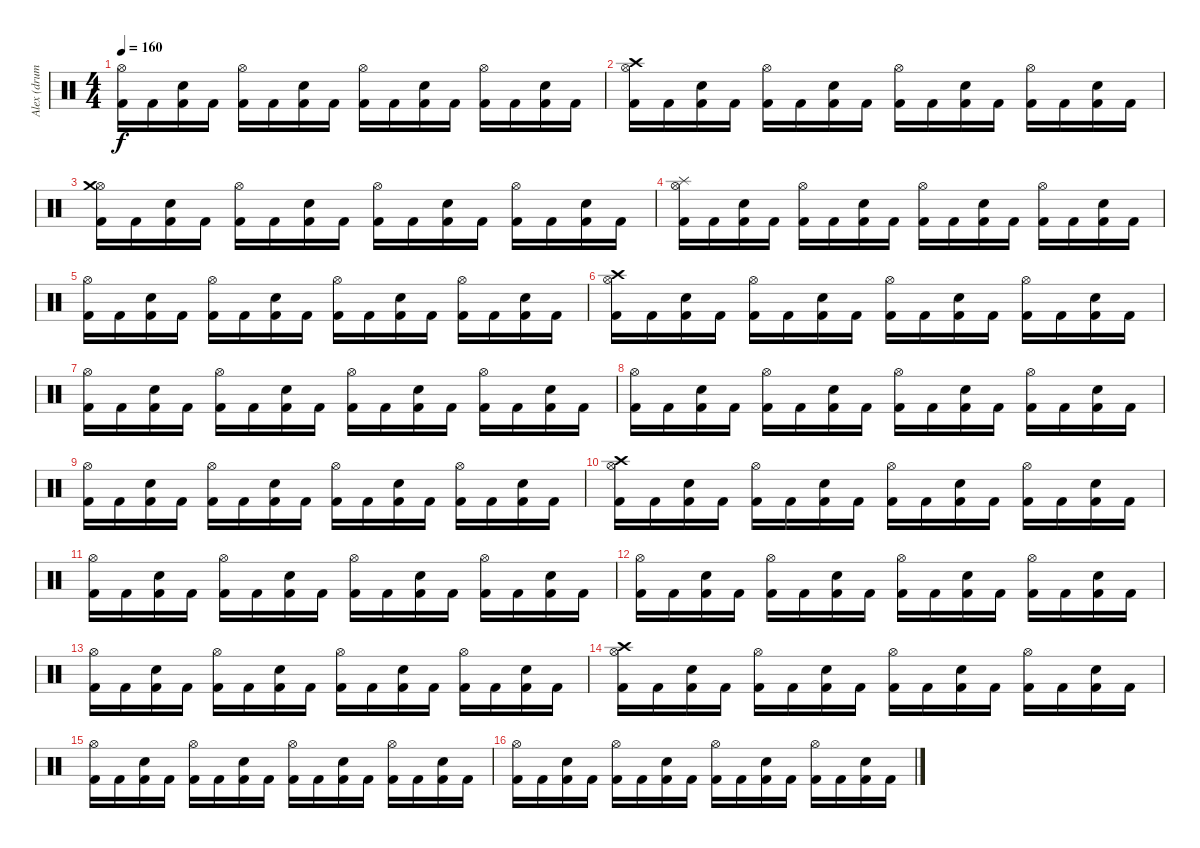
\track ("Alex (drums)" "Alex (drum") {instrument percussion}
\staff {score}
\articulation defaults
\ts (4 4)
\tempo 160
\clef neutral
\ks c
("Hi-Hat (open)" "Kick (hit) 2").16{dy f} "Kick (hit) 2".16 ("Snare (hit) 2" "Kick (hit) 2").16 "Kick (hit) 2".16 ("Hi-Hat (open)" "Kick (hit) 2").16 "Kick (hit) 2".16 ("Snare (hit) 2" "Kick (hit) 2").16 "Kick (hit) 2".16 ("Hi-Hat (open)" "Kick (hit) 2").16 "Kick (hit) 2".16 ("Snare (hit) 2" "Kick (hit) 2").16 "Kick (hit) 2".16 ("Hi-Hat (open)" "Kick (hit) 2").16 "Kick (hit) 2".16 ("Snare (hit) 2" "Kick (hit) 2").16 "Kick (hit) 2".16 |
("Hi-Hat (open)" "Kick (hit) 2" "Crash high (hit)").16 "Kick (hit) 2".16 ("Snare (hit) 2" "Kick (hit) 2").16 "Kick (hit) 2".16 ("Hi-Hat (open)" "Kick (hit) 2").16 "Kick (hit) 2".16 ("Snare (hit) 2" "Kick (hit) 2").16 "Kick (hit) 2".16 ("Hi-Hat (open)" "Kick (hit) 2").16 "Kick (hit) 2".16 ("Snare (hit) 2" "Kick (hit) 2").16 "Kick (hit) 2".16 ("Hi-Hat (open)" "Kick (hit) 2").16 "Kick (hit) 2".16 ("Snare (hit) 2" "Kick (hit) 2").16 "Kick (hit) 2".16 |
("Hi-Hat (open)" "Kick (hit) 2" "Crash medium (hit)").16 "Kick (hit) 2".16 ("Snare (hit) 2" "Kick (hit) 2").16 "Kick (hit) 2".16 ("Hi-Hat (open)" "Kick (hit) 2").16 "Kick (hit) 2".16 ("Snare (hit) 2" "Kick (hit) 2").16 "Kick (hit) 2".16 ("Hi-Hat (open)" "Kick (hit) 2").16 "Kick (hit) 2".16 ("Snare (hit) 2" "Kick (hit) 2").16 "Kick (hit) 2".16 ("Hi-Hat (open)" "Kick (hit) 2").16 "Kick (hit) 2".16 ("Snare (hit) 2" "Kick (hit) 2").16 "Kick (hit) 2".16 |
("Hi-Hat (open)" "Kick (hit) 2" "Splash (hit)").16 "Kick (hit) 2".16 ("Snare (hit) 2" "Kick (hit) 2").16 "Kick (hit) 2".16 ("Hi-Hat (open)" "Kick (hit) 2").16 "Kick (hit) 2".16 ("Snare (hit) 2" "Kick (hit) 2").16 "Kick (hit) 2".16 ("Hi-Hat (open)" "Kick (hit) 2").16 "Kick (hit) 2".16 ("Snare (hit) 2" "Kick (hit) 2").16 "Kick (hit) 2".16 ("Hi-Hat (open)" "Kick (hit) 2").16 "Kick (hit) 2".16 ("Snare (hit) 2" "Kick (hit) 2").16 "Kick (hit) 2".16 |
("Hi-Hat (open)" "Kick (hit) 2").16 "Kick (hit) 2".16 ("Snare (hit) 2" "Kick (hit) 2").16 "Kick (hit) 2".16 ("Hi-Hat (open)" "Kick (hit) 2").16 "Kick (hit) 2".16 ("Snare (hit) 2" "Kick (hit) 2").16 "Kick (hit) 2".16 ("Hi-Hat (open)" "Kick (hit) 2").16 "Kick (hit) 2".16 ("Snare (hit) 2" "Kick (hit) 2").16 "Kick (hit) 2".16 ("Hi-Hat (open)" "Kick (hit) 2").16 "Kick (hit) 2".16 ("Snare (hit) 2" "Kick (hit) 2").16 "Kick (hit) 2".16 |
("Hi-Hat (open)" "Kick (hit) 2" "Crash high (hit)").16 "Kick (hit) 2".16 ("Snare (hit) 2" "Kick (hit) 2").16 "Kick (hit) 2".16 ("Hi-Hat (open)" "Kick (hit) 2").16 "Kick (hit) 2".16 ("Snare (hit) 2" "Kick (hit) 2").16 "Kick (hit) 2".16 ("Hi-Hat (open)" "Kick (hit) 2").16 "Kick (hit) 2".16 ("Snare (hit) 2" "Kick (hit) 2").16 "Kick (hit) 2".16 ("Hi-Hat (open)" "Kick (hit) 2").16 "Kick (hit) 2".16 ("Snare (hit) 2" "Kick (hit) 2").16 "Kick (hit) 2".16 |
("Hi-Hat (open)" "Kick (hit) 2").16 "Kick (hit) 2".16 ("Snare (hit) 2" "Kick (hit) 2").16 "Kick (hit) 2".16 ("Hi-Hat (open)" "Kick (hit) 2").16 "Kick (hit) 2".16 ("Snare (hit) 2" "Kick (hit) 2").16 "Kick (hit) 2".16 ("Hi-Hat (open)" "Kick (hit) 2").16 "Kick (hit) 2".16 ("Snare (hit) 2" "Kick (hit) 2").16 "Kick (hit) 2".16 ("Hi-Hat (open)" "Kick (hit) 2").16 "Kick (hit) 2".16 ("Snare (hit) 2" "Kick (hit) 2").16 "Kick (hit) 2".16 |
("Hi-Hat (open)" "Kick (hit) 2").16 "Kick (hit) 2".16 ("Snare (hit) 2" "Kick (hit) 2").16 "Kick (hit) 2".16 ("Hi-Hat (open)" "Kick (hit) 2").16 "Kick (hit) 2".16 ("Snare (hit) 2" "Kick (hit) 2").16 "Kick (hit) 2".16 ("Hi-Hat (open)" "Kick (hit) 2").16 "Kick (hit) 2".16 ("Snare (hit) 2" "Kick (hit) 2").16 "Kick (hit) 2".16 ("Hi-Hat (open)" "Kick (hit) 2").16 "Kick (hit) 2".16 ("Snare (hit) 2" "Kick (hit) 2").16 "Kick (hit) 2".16 |
("Hi-Hat (open)" "Kick (hit) 2").16 "Kick (hit) 2".16 ("Snare (hit) 2" "Kick (hit) 2").16 "Kick (hit) 2".16 ("Hi-Hat (open)" "Kick (hit) 2").16 "Kick (hit) 2".16 ("Snare (hit) 2" "Kick (hit) 2").16 "Kick (hit) 2".16 ("Hi-Hat (open)" "Kick (hit) 2").16 "Kick (hit) 2".16 ("Snare (hit) 2" "Kick (hit) 2").16 "Kick (hit) 2".16 ("Hi-Hat (open)" "Kick (hit) 2").16 "Kick (hit) 2".16 ("Snare (hit) 2" "Kick (hit) 2").16 "Kick (hit) 2".16 |
("Hi-Hat (open)" "Kick (hit) 2" "Crash high (hit)").16 "Kick (hit) 2".16 ("Snare (hit) 2" "Kick (hit) 2").16 "Kick (hit) 2".16 ("Hi-Hat (open)" "Kick (hit) 2").16 "Kick (hit) 2".16 ("Snare (hit) 2" "Kick (hit) 2").16 "Kick (hit) 2".16 ("Hi-Hat (open)" "Kick (hit) 2").16 "Kick (hit) 2".16 ("Snare (hit) 2" "Kick (hit) 2").16 "Kick (hit) 2".16 ("Hi-Hat (open)" "Kick (hit) 2").16 "Kick (hit) 2".16 ("Snare (hit) 2" "Kick (hit) 2").16 "Kick (hit) 2".16 |
("Hi-Hat (open)" "Kick (hit) 2").16 "Kick (hit) 2".16 ("Snare (hit) 2" "Kick (hit) 2").16 "Kick (hit) 2".16 ("Hi-Hat (open)" "Kick (hit) 2").16 "Kick (hit) 2".16 ("Snare (hit) 2" "Kick (hit) 2").16 "Kick (hit) 2".16 ("Hi-Hat (open)" "Kick (hit) 2").16 "Kick (hit) 2".16 ("Snare (hit) 2" "Kick (hit) 2").16 "Kick (hit) 2".16 ("Hi-Hat (open)" "Kick (hit) 2").16 "Kick (hit) 2".16 ("Snare (hit) 2" "Kick (hit) 2").16 "Kick (hit) 2".16 |
("Hi-Hat (open)" "Kick (hit) 2").16 "Kick (hit) 2".16 ("Snare (hit) 2" "Kick (hit) 2").16 "Kick (hit) 2".16 ("Hi-Hat (open)" "Kick (hit) 2").16 "Kick (hit) 2".16 ("Snare (hit) 2" "Kick (hit) 2").16 "Kick (hit) 2".16 ("Hi-Hat (open)" "Kick (hit) 2").16 "Kick (hit) 2".16 ("Snare (hit) 2" "Kick (hit) 2").16 "Kick (hit) 2".16 ("Hi-Hat (open)" "Kick (hit) 2").16 "Kick (hit) 2".16 ("Snare (hit) 2" "Kick (hit) 2").16 "Kick (hit) 2".16 |
("Hi-Hat (open)" "Kick (hit) 2").16 "Kick (hit) 2".16 ("Snare (hit) 2" "Kick (hit) 2").16 "Kick (hit) 2".16 ("Hi-Hat (open)" "Kick (hit) 2").16 "Kick (hit) 2".16 ("Snare (hit) 2" "Kick (hit) 2").16 "Kick (hit) 2".16 ("Hi-Hat (open)" "Kick (hit) 2").16 "Kick (hit) 2".16 ("Snare (hit) 2" "Kick (hit) 2").16 "Kick (hit) 2".16 ("Hi-Hat (open)" "Kick (hit) 2").16 "Kick (hit) 2".16 ("Snare (hit) 2" "Kick (hit) 2").16 "Kick (hit) 2".16 |
("Hi-Hat (open)" "Kick (hit) 2" "Crash high (hit)").16 "Kick (hit) 2".16 ("Snare (hit) 2" "Kick (hit) 2").16 "Kick (hit) 2".16 ("Hi-Hat (open)" "Kick (hit) 2").16 "Kick (hit) 2".16 ("Snare (hit) 2" "Kick (hit) 2").16 "Kick (hit) 2".16 ("Hi-Hat (open)" "Kick (hit) 2").16 "Kick (hit) 2".16 ("Snare (hit) 2" "Kick (hit) 2").16 "Kick (hit) 2".16 ("Hi-Hat (open)" "Kick (hit) 2").16 "Kick (hit) 2".16 ("Snare (hit) 2" "Kick (hit) 2").16 "Kick (hit) 2".16 |
("Hi-Hat (open)" "Kick (hit) 2").16 "Kick (hit) 2".16 ("Snare (hit) 2" "Kick (hit) 2").16 "Kick (hit) 2".16 ("Hi-Hat (open)" "Kick (hit) 2").16 "Kick (hit) 2".16 ("Snare (hit) 2" "Kick (hit) 2").16 "Kick (hit) 2".16 ("Hi-Hat (open)" "Kick (hit) 2").16 "Kick (hit) 2".16 ("Snare (hit) 2" "Kick (hit) 2").16 "Kick (hit) 2".16 ("Hi-Hat (open)" "Kick (hit) 2").16 "Kick (hit) 2".16 ("Snare (hit) 2" "Kick (hit) 2").16 "Kick (hit) 2".16 |
("Hi-Hat (open)" "Kick (hit) 2").16 "Kick (hit) 2".16 ("Snare (hit) 2" "Kick (hit) 2").16 "Kick (hit) 2".16 ("Hi-Hat (open)" "Kick (hit) 2").16 "Kick (hit) 2".16 ("Snare (hit) 2" "Kick (hit) 2").16 "Kick (hit) 2".16 ("Hi-Hat (open)" "Kick (hit) 2").16 "Kick (hit) 2".16 ("Snare (hit) 2" "Kick (hit) 2").16 "Kick (hit) 2".16 ("Hi-Hat (open)" "Kick (hit) 2").16 "Kick (hit) 2".16 ("Snare (hit) 2" "Kick (hit) 2").16 "Kick (hit) 2".16
